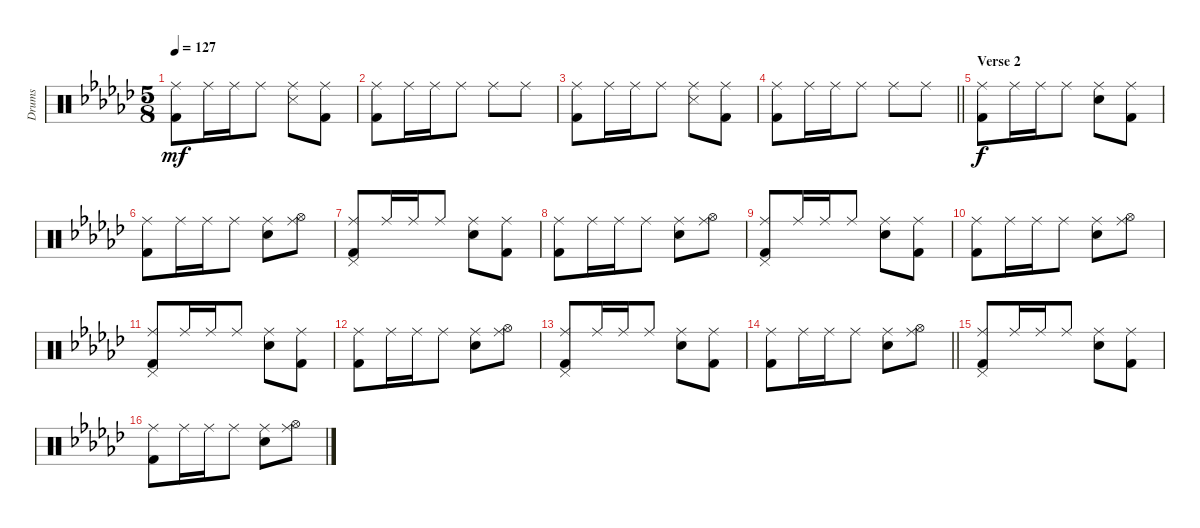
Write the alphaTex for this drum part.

\track ("Drums" "Drums") {instrument percussion}
\staff {score}
\articulation defaults
\ts (5 8)
\tempo 127
\clef neutral
\ks ebminor
("Ride (middle)" "Kick (hit) 2").8{dy mf} "Ride (middle)".16 "Ride (middle)".16 "Ride (middle)".8 ("Ride (middle)" "Snare (side stick) 3").8 ("Ride (middle)" "Kick (hit) 2").8 |
("Ride (middle)" "Kick (hit) 2").8 "Ride (middle)".16 "Ride (middle)".16 "Ride (middle)".8 "Ride (middle)".8 "Ride (middle)".8 |
("Ride (middle)" "Kick (hit) 2").8 "Ride (middle)".16 "Ride (middle)".16 "Ride (middle)".8 ("Ride (middle)" "Snare (side stick) 3").8 ("Ride (middle)" "Kick (hit) 2").8 |
\barLineRight lightlight
("Ride (middle)" "Kick (hit) 2").8 "Ride (middle)".16 "Ride (middle)".16 "Ride (middle)".8 "Ride (middle)".8 "Ride (middle)".8 |
\section ("" "Verse 2")
("Ride (middle)" "Kick (hit) 2").8{dy f} "Ride (middle)".16 "Ride (middle)".16 "Ride (middle)".8 ("Ride (middle)" "Electric Snare (hit)").8 ("Ride (middle)" "Kick (hit) 2").8 |
("Ride (middle)" "Kick (hit) 2").8 "Ride (middle)".16 "Ride (middle)".16 "Ride (middle)".8 ("Ride (middle)" "Electric Snare (hit)").8 ("Ride (middle)" "Hi-Hat (open)").8 |
("Ride (middle)" "Kick (hit) 2" "Pedal Hi-Hat (hit)").8 "Ride (middle)".16 "Ride (middle)".16 "Ride (middle)".8 ("Ride (middle)" "Electric Snare (hit)").8 ("Ride (middle)" "Kick (hit) 2").8 |
("Ride (middle)" "Kick (hit) 2").8 "Ride (middle)".16 "Ride (middle)".16 "Ride (middle)".8 ("Ride (middle)" "Electric Snare (hit)").8 ("Ride (middle)" "Hi-Hat (open)").8 |
("Ride (middle)" "Kick (hit) 2" "Pedal Hi-Hat (hit)").8 "Ride (middle)".16 "Ride (middle)".16 "Ride (middle)".8 ("Ride (middle)" "Electric Snare (hit)").8 ("Ride (middle)" "Kick (hit) 2").8 |
("Ride (middle)" "Kick (hit) 2").8 "Ride (middle)".16 "Ride (middle)".16 "Ride (middle)".8 ("Ride (middle)" "Electric Snare (hit)").8 ("Ride (middle)" "Hi-Hat (open)").8 |
("Ride (middle)" "Kick (hit) 2" "Pedal Hi-Hat (hit)").8 "Ride (middle)".16 "Ride (middle)".16 "Ride (middle)".8 ("Ride (middle)" "Electric Snare (hit)").8 ("Ride (middle)" "Kick (hit) 2").8 |
("Ride (middle)" "Kick (hit) 2").8 "Ride (middle)".16 "Ride (middle)".16 "Ride (middle)".8 ("Ride (middle)" "Electric Snare (hit)").8 ("Ride (middle)" "Hi-Hat (open)").8 |
("Ride (middle)" "Kick (hit) 2" "Pedal Hi-Hat (hit)").8 "Ride (middle)".16 "Ride (middle)".16 "Ride (middle)".8 ("Ride (middle)" "Electric Snare (hit)").8 ("Ride (middle)" "Kick (hit) 2").8 |
\barLineRight lightlight
("Ride (middle)" "Kick (hit) 2").8 "Ride (middle)".16 "Ride (middle)".16 "Ride (middle)".8 ("Ride (middle)" "Electric Snare (hit)").8 ("Ride (middle)" "Hi-Hat (open)").8 |
("Ride (middle)" "Kick (hit) 2" "Pedal Hi-Hat (hit)").8 "Ride (middle)".16 "Ride (middle)".16 "Ride (middle)".8 ("Ride (middle)" "Electric Snare (hit)").8 ("Ride (middle)" "Kick (hit) 2").8 |
("Ride (middle)" "Kick (hit) 2").8 "Ride (middle)".16 "Ride (middle)".16 "Ride (middle)".8 ("Ride (middle)" "Electric Snare (hit)").8 ("Ride (middle)" "Hi-Hat (open)").8
